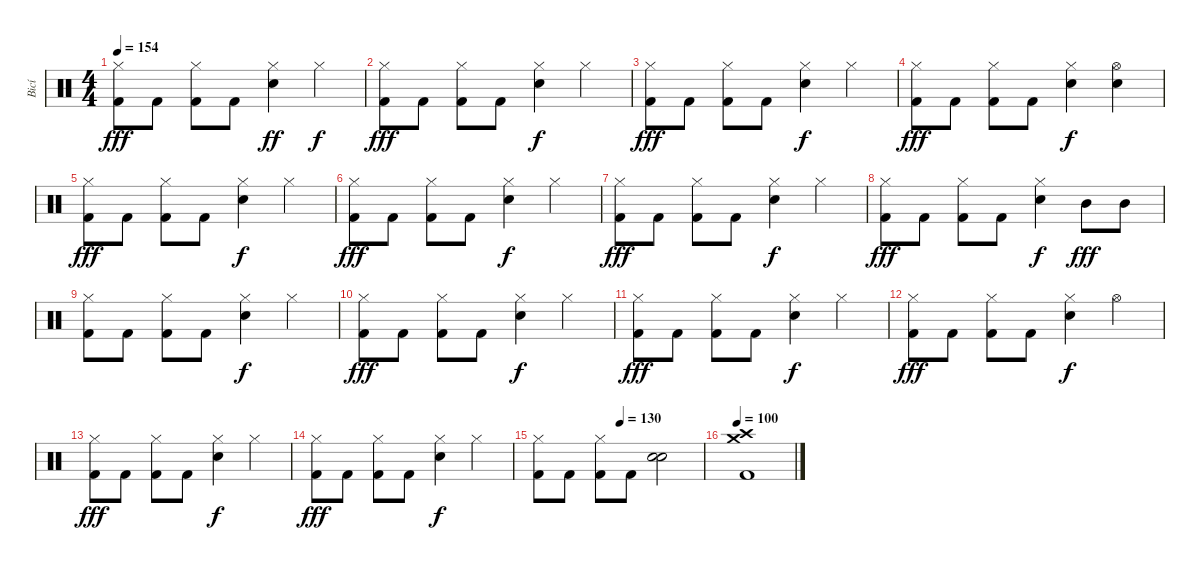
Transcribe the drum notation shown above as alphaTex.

\track ("Bicí" "Bicí") {instrument percussion}
\staff {score}
\articulation defaults
\ts (4 4)
\tempo 154
\clef neutral
\ks c
("Hi-Hat (closed)" "Kick (hit) 2").8{dy fff} "Kick (hit) 2".8 ("Hi-Hat (closed)" "Kick (hit) 2").8 "Kick (hit) 2".8 ("Hi-Hat (closed)" "Electric Snare (hit)").4{dy ff} "Hi-Hat (closed)".4{dy f} |
("Hi-Hat (closed)" "Kick (hit) 2").8{dy fff} "Kick (hit) 2".8 ("Hi-Hat (closed)" "Kick (hit) 2").8 "Kick (hit) 2".8 ("Hi-Hat (closed)" "Electric Snare (hit)").4{dy f} "Hi-Hat (closed)".4 |
("Hi-Hat (closed)" "Kick (hit) 2").8{dy fff} "Kick (hit) 2".8 ("Hi-Hat (closed)" "Kick (hit) 2").8 "Kick (hit) 2".8 ("Hi-Hat (closed)" "Electric Snare (hit)").4{dy f} "Hi-Hat (closed)".4 |
("Hi-Hat (closed)" "Kick (hit) 2").8{dy fff} "Kick (hit) 2".8 ("Hi-Hat (closed)" "Kick (hit) 2").8 "Kick (hit) 2".8 ("Hi-Hat (closed)" "Electric Snare (hit)").4{dy f} ("Hi-Hat (open)" "Electric Snare (hit)").4 |
("Hi-Hat (closed)" "Kick (hit) 2").8{dy fff} "Kick (hit) 2".8 ("Hi-Hat (closed)" "Kick (hit) 2").8 "Kick (hit) 2".8 ("Hi-Hat (closed)" "Electric Snare (hit)").4{dy f} "Hi-Hat (closed)".4 |
("Hi-Hat (closed)" "Kick (hit) 2").8{dy fff} "Kick (hit) 2".8 ("Hi-Hat (closed)" "Kick (hit) 2").8 "Kick (hit) 2".8 ("Hi-Hat (closed)" "Electric Snare (hit)").4{dy f} "Hi-Hat (closed)".4 |
("Hi-Hat (closed)" "Kick (hit) 2").8{dy fff} "Kick (hit) 2".8 ("Hi-Hat (closed)" "Kick (hit) 2").8 "Kick (hit) 2".8 ("Hi-Hat (closed)" "Electric Snare (hit)").4{dy f} "Hi-Hat (closed)".4 |
("Hi-Hat (closed)" "Kick (hit) 2").8{dy fff} "Kick (hit) 2".8 ("Hi-Hat (closed)" "Kick (hit) 2").8 "Kick (hit) 2".8 ("Hi-Hat (closed)" "Electric Snare (hit)").4{dy f} "Mid Tom (hit)".8{dy fff} "Mid Tom (hit)".8 |
("Hi-Hat (closed)" "Kick (hit) 2").8 "Kick (hit) 2".8 ("Hi-Hat (closed)" "Kick (hit) 2").8 "Kick (hit) 2".8 ("Hi-Hat (closed)" "Electric Snare (hit)").4{dy f} "Hi-Hat (closed)".4 |
("Hi-Hat (closed)" "Kick (hit) 2").8{dy fff} "Kick (hit) 2".8 ("Hi-Hat (closed)" "Kick (hit) 2").8 "Kick (hit) 2".8 ("Hi-Hat (closed)" "Electric Snare (hit)").4{dy f} "Hi-Hat (closed)".4 |
("Hi-Hat (closed)" "Kick (hit) 2").8{dy fff} "Kick (hit) 2".8 ("Hi-Hat (closed)" "Kick (hit) 2").8 "Kick (hit) 2".8 ("Hi-Hat (closed)" "Electric Snare (hit)").4{dy f} "Hi-Hat (closed)".4 |
("Hi-Hat (closed)" "Kick (hit) 2").8{dy fff} "Kick (hit) 2".8 ("Hi-Hat (closed)" "Kick (hit) 2").8 "Kick (hit) 2".8 ("Hi-Hat (closed)" "Electric Snare (hit)").4{dy f} "Hi-Hat (open)".4 |
("Hi-Hat (closed)" "Kick (hit) 2").8{dy fff} "Kick (hit) 2".8 ("Hi-Hat (closed)" "Kick (hit) 2").8 "Kick (hit) 2".8 ("Hi-Hat (closed)" "Electric Snare (hit)").4{dy f} "Hi-Hat (closed)".4 |
("Hi-Hat (closed)" "Kick (hit) 2").8{dy fff} "Kick (hit) 2".8 ("Hi-Hat (closed)" "Kick (hit) 2").8 "Kick (hit) 2".8 ("Hi-Hat (closed)" "Electric Snare (hit)").4{dy f} "Hi-Hat (closed)".4 |
\tempo (130 0.5)
("Hi-Hat (closed)" "Kick (hit) 2").8 "Kick (hit) 2".8 ("Hi-Hat (closed)" "Kick (hit) 2").8 "Kick (hit) 2".8 ("Electric Snare (hit)" "Snare (hit) 2").2 |
\tempo 100
("Crash medium (hit)" "Kick (hit) 2" "Crash high (hit)").1
